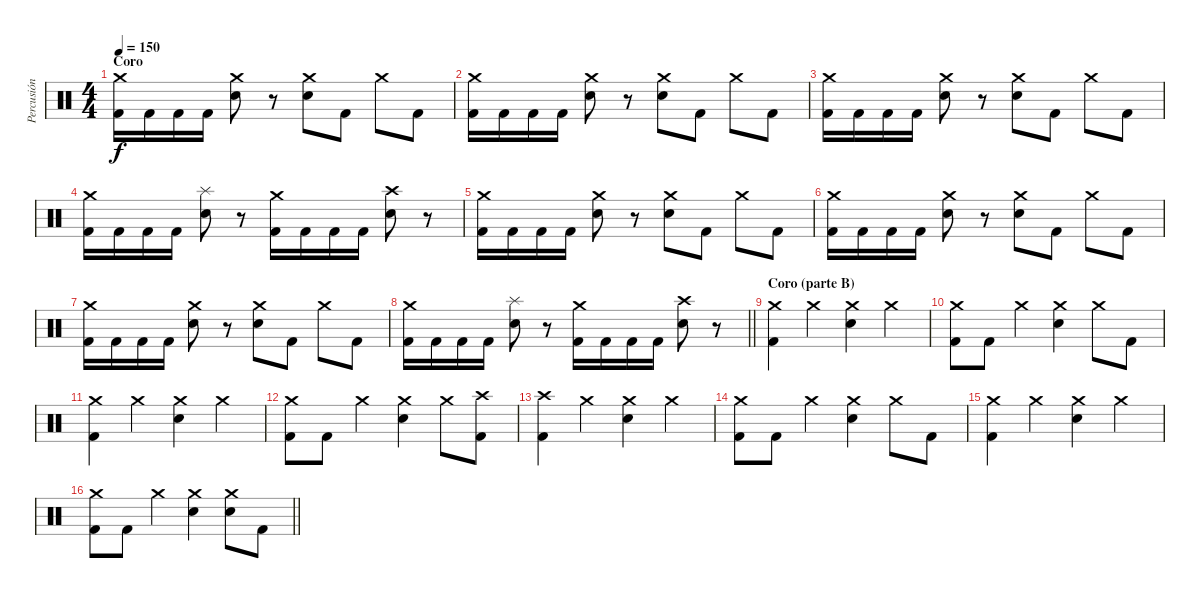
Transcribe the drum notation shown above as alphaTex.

\track ("Percusión" "Percusión") {instrument percussion}
\staff {score}
\articulation defaults
\ts (4 4)
\section ("" "Coro")
\tempo 150
\clef neutral
\ks c
("Crash medium (hit)" "Kick (hit) 2").16{dy f} "Kick (hit) 2".16 "Kick (hit) 2".16 "Kick (hit) 2".16 ("Crash medium (hit)" "Electric Snare (hit)").8 r.8 ("Crash medium (hit)" "Electric Snare (hit)").8 "Kick (hit) 2".8 "Crash medium (hit)".8 "Kick (hit) 2".8 |
("Crash medium (hit)" "Kick (hit) 2").16 "Kick (hit) 2".16 "Kick (hit) 2".16 "Kick (hit) 2".16 ("Crash medium (hit)" "Electric Snare (hit)").8 r.8 ("Crash medium (hit)" "Electric Snare (hit)").8 "Kick (hit) 2".8 "Crash medium (hit)".8 "Kick (hit) 2".8 |
("Crash medium (hit)" "Kick (hit) 2").16 "Kick (hit) 2".16 "Kick (hit) 2".16 "Kick (hit) 2".16 ("Crash medium (hit)" "Electric Snare (hit)").8 r.8 ("Crash medium (hit)" "Electric Snare (hit)").8 "Kick (hit) 2".8 "Crash medium (hit)".8 "Kick (hit) 2".8 |
("Crash medium (hit)" "Kick (hit) 2").16 "Kick (hit) 2".16 "Kick (hit) 2".16 "Kick (hit) 2".16 ("Splash (hit)" "Electric Snare (hit)").8 r.8 ("Crash medium (hit)" "Kick (hit) 2").16 "Kick (hit) 2".16 "Kick (hit) 2".16 "Kick (hit) 2".16 ("Crash high (hit)" "Electric Snare (hit)").8 r.8 |
("Crash medium (hit)" "Kick (hit) 2").16 "Kick (hit) 2".16 "Kick (hit) 2".16 "Kick (hit) 2".16 ("Crash medium (hit)" "Electric Snare (hit)").8 r.8 ("Crash medium (hit)" "Electric Snare (hit)").8 "Kick (hit) 2".8 "Crash medium (hit)".8 "Kick (hit) 2".8 |
("Crash medium (hit)" "Kick (hit) 2").16 "Kick (hit) 2".16 "Kick (hit) 2".16 "Kick (hit) 2".16 ("Crash medium (hit)" "Electric Snare (hit)").8 r.8 ("Crash medium (hit)" "Electric Snare (hit)").8 "Kick (hit) 2".8 "Crash medium (hit)".8 "Kick (hit) 2".8 |
("Crash medium (hit)" "Kick (hit) 2").16 "Kick (hit) 2".16 "Kick (hit) 2".16 "Kick (hit) 2".16 ("Crash medium (hit)" "Electric Snare (hit)").8 r.8 ("Crash medium (hit)" "Electric Snare (hit)").8 "Kick (hit) 2".8 "Crash medium (hit)".8 "Kick (hit) 2".8 |
\barLineRight lightlight
("Crash medium (hit)" "Kick (hit) 2").16 "Kick (hit) 2".16 "Kick (hit) 2".16 "Kick (hit) 2".16 ("Splash (hit)" "Electric Snare (hit)").8 r.8 ("Crash medium (hit)" "Kick (hit) 2").16 "Kick (hit) 2".16 "Kick (hit) 2".16 "Kick (hit) 2".16 ("Crash high (hit)" "Electric Snare (hit)").8 r.8 |
\section ("" "Coro (parte B)")
("Crash medium (hit)" "Kick (hit) 2").4 "Crash medium (hit)".4 ("Crash medium (hit)" "Electric Snare (hit)").4 "Crash medium (hit)".4 |
("Crash medium (hit)" "Kick (hit) 2").8 "Kick (hit) 2".8 "Crash medium (hit)".4 ("Crash medium (hit)" "Electric Snare (hit)").4 "Crash medium (hit)".8 "Kick (hit) 2".8 |
("Crash medium (hit)" "Kick (hit) 2").4 "Crash medium (hit)".4 ("Crash medium (hit)" "Electric Snare (hit)").4 "Crash medium (hit)".4 |
("Crash medium (hit)" "Kick (hit) 2").8 "Kick (hit) 2".8 "Crash medium (hit)".4 ("Crash medium (hit)" "Electric Snare (hit)").4 "Crash medium (hit)".8 ("Crash high (hit)" "Kick (hit) 2").8 |
("Crash high (hit)" "Kick (hit) 2").4 "Crash medium (hit)".4 ("Crash medium (hit)" "Electric Snare (hit)").4 "Crash medium (hit)".4 |
("Crash medium (hit)" "Kick (hit) 2").8 "Kick (hit) 2".8 "Crash medium (hit)".4 ("Crash medium (hit)" "Electric Snare (hit)").4 "Crash medium (hit)".8 "Kick (hit) 2".8 |
("Crash medium (hit)" "Kick (hit) 2").4 "Crash medium (hit)".4 ("Crash medium (hit)" "Electric Snare (hit)").4 "Crash medium (hit)".4 |
\barLineRight lightlight
("Crash medium (hit)" "Kick (hit) 2").8 "Kick (hit) 2".8 "Crash medium (hit)".4 ("Crash medium (hit)" "Electric Snare (hit)").4 ("Crash medium (hit)" "Electric Snare (hit)").8 "Kick (hit) 2".8
